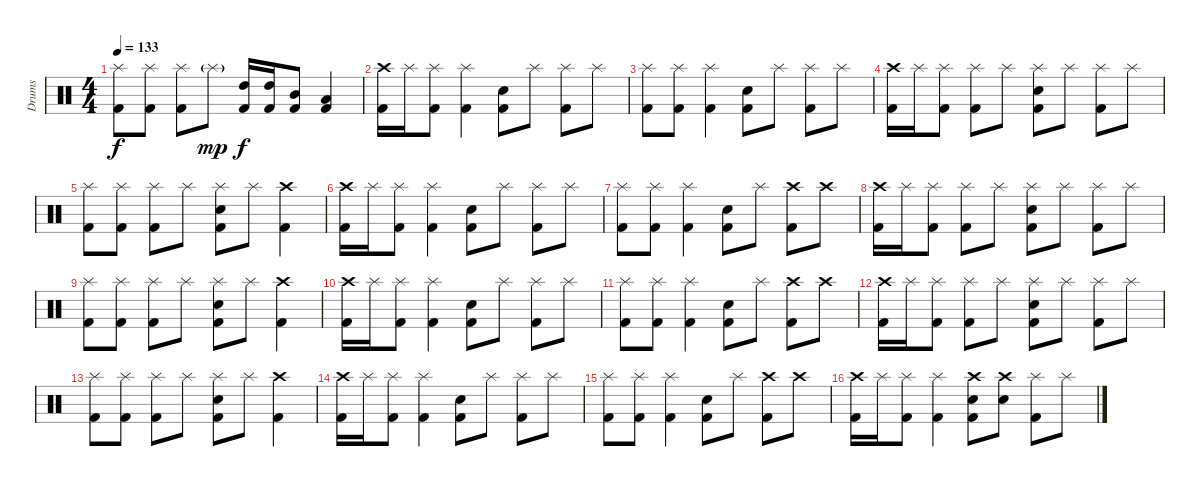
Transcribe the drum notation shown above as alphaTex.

\track ("Drums" "Drums") {instrument percussion}
\staff {score}
\articulation defaults
\ts (4 4)
\tempo 133
\clef neutral
\ks c
("Kick (hit) 2" "Splash (hit)").8{dy f} ("Kick (hit) 2" "Splash (hit)").8 ("Kick (hit) 2" "Splash (hit)").8 "Splash (hit)"{g}.8{dy mp} ("Kick (hit) 2" "High Tom (hit)").16{dy f} ("Kick (hit) 2" "High Tom (hit)").16 ("Kick (hit) 2" "Mid Tom (hit)").8 ("Kick (hit) 2" "Low Tom (hit)").4 |
("Kick (hit) 2" "Crash high (hit)").16 "Splash (hit)".16 ("Kick (hit) 2" "Splash (hit)").8 ("Kick (hit) 2" "Splash (hit)").4 ("Kick (hit) 2" "Snare (hit) 2").8 "Splash (hit)".8 ("Kick (hit) 2" "Splash (hit)").8 "Splash (hit)".8 |
("Kick (hit) 2" "Splash (hit)").8 ("Kick (hit) 2" "Splash (hit)").8 ("Kick (hit) 2" "Splash (hit)").4 ("Kick (hit) 2" "Snare (hit) 2").8 "Splash (hit)".8 ("Kick (hit) 2" "Splash (hit)").8 "Splash (hit)".8 |
("Kick (hit) 2" "Crash high (hit)").16 "Splash (hit)".16 ("Kick (hit) 2" "Splash (hit)").8 ("Kick (hit) 2" "Splash (hit)").8 "Splash (hit)".8 ("Kick (hit) 2" "Snare (hit) 2" "Splash (hit)").8 "Splash (hit)".8 ("Kick (hit) 2" "Splash (hit)").8 "Splash (hit)".8 |
("Kick (hit) 2" "Splash (hit)").8 ("Kick (hit) 2" "Splash (hit)").8 ("Kick (hit) 2" "Splash (hit)").8 "Splash (hit)".8 ("Kick (hit) 2" "Snare (hit) 2" "Splash (hit)").8 "Splash (hit)".8 ("Kick (hit) 2" "Crash high (hit)").4 |
("Kick (hit) 2" "Crash high (hit)").16 "Splash (hit)".16 ("Kick (hit) 2" "Splash (hit)").8 ("Kick (hit) 2" "Splash (hit)").4 ("Kick (hit) 2" "Snare (hit) 2").8 "Splash (hit)".8 ("Kick (hit) 2" "Splash (hit)").8 "Splash (hit)".8 |
("Kick (hit) 2" "Splash (hit)").8 ("Kick (hit) 2" "Splash (hit)").8 ("Kick (hit) 2" "Splash (hit)").4 ("Kick (hit) 2" "Snare (hit) 2").8 "Splash (hit)".8 ("Kick (hit) 2" "Crash high (hit)").8 "Crash high (hit)".8 |
("Kick (hit) 2" "Crash high (hit)").16 "Splash (hit)".16 ("Kick (hit) 2" "Splash (hit)").8 ("Kick (hit) 2" "Splash (hit)").8 "Splash (hit)".8 ("Kick (hit) 2" "Snare (hit) 2" "Splash (hit)").8 "Splash (hit)".8 ("Kick (hit) 2" "Splash (hit)").8 "Splash (hit)".8 |
("Kick (hit) 2" "Splash (hit)").8 ("Kick (hit) 2" "Splash (hit)").8 ("Kick (hit) 2" "Splash (hit)").8 "Splash (hit)".8 ("Kick (hit) 2" "Snare (hit) 2" "Splash (hit)").8 "Splash (hit)".8 ("Kick (hit) 2" "Crash high (hit)").4 |
("Kick (hit) 2" "Crash high (hit)").16 "Splash (hit)".16 ("Kick (hit) 2" "Splash (hit)").8 ("Kick (hit) 2" "Splash (hit)").4 ("Kick (hit) 2" "Snare (hit) 2").8 "Splash (hit)".8 ("Kick (hit) 2" "Splash (hit)").8 "Splash (hit)".8 |
("Kick (hit) 2" "Splash (hit)").8 ("Kick (hit) 2" "Splash (hit)").8 ("Kick (hit) 2" "Splash (hit)").4 ("Kick (hit) 2" "Snare (hit) 2").8 "Splash (hit)".8 ("Kick (hit) 2" "Crash high (hit)").8 "Crash high (hit)".8 |
("Kick (hit) 2" "Crash high (hit)").16 "Splash (hit)".16 ("Kick (hit) 2" "Splash (hit)").8 ("Kick (hit) 2" "Splash (hit)").8 "Splash (hit)".8 ("Kick (hit) 2" "Snare (hit) 2" "Splash (hit)").8 "Splash (hit)".8 ("Kick (hit) 2" "Splash (hit)").8 "Splash (hit)".8 |
("Kick (hit) 2" "Splash (hit)").8 ("Kick (hit) 2" "Splash (hit)").8 ("Kick (hit) 2" "Splash (hit)").8 "Splash (hit)".8 ("Kick (hit) 2" "Snare (hit) 2" "Splash (hit)").8 "Splash (hit)".8 ("Kick (hit) 2" "Crash high (hit)").4 |
("Kick (hit) 2" "Crash high (hit)").16 "Splash (hit)".16 ("Kick (hit) 2" "Splash (hit)").8 ("Kick (hit) 2" "Splash (hit)").4 ("Kick (hit) 2" "Snare (hit) 2").8 "Splash (hit)".8 ("Kick (hit) 2" "Splash (hit)").8 "Splash (hit)".8 |
("Kick (hit) 2" "Splash (hit)").8 ("Kick (hit) 2" "Splash (hit)").8 ("Kick (hit) 2" "Splash (hit)").4 ("Kick (hit) 2" "Snare (hit) 2").8 "Splash (hit)".8 ("Kick (hit) 2" "Crash high (hit)").8 "Crash high (hit)".8 |
("Kick (hit) 2" "Crash high (hit)").16 "Splash (hit)".16 ("Kick (hit) 2" "Splash (hit)").8 ("Kick (hit) 2" "Splash (hit)").4 ("Kick (hit) 2" "Snare (hit) 2" "Crash high (hit)").8 ("Snare (hit) 2" "Crash high (hit)").8 ("Kick (hit) 2" "Splash (hit)").8 "Splash (hit)".8
